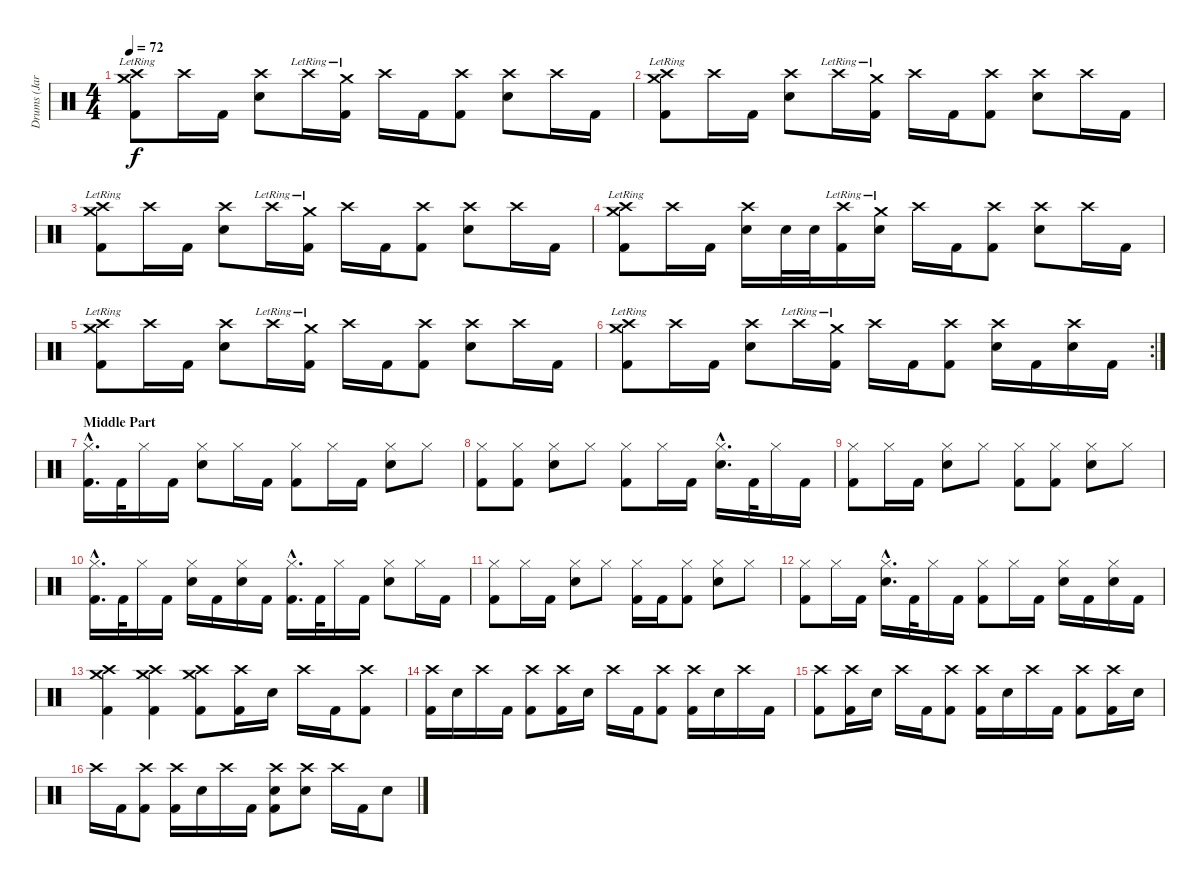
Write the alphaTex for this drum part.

\track ("Drums (Jarod Montague)" "Drums (Jar") {instrument percussion}
\staff {score}
\articulation defaults
\ts (4 4)
\tempo 72
\clef neutral
\ks c
("Crash high (hit)" "Crash medium (hit)"{lr} "Kick (hit) 2").8{dy f} "Crash high (hit)".16 "Kick (hit) 2".16 ("Crash high (hit)" "Snare (hit) 2").8 "Crash high (hit)"{lr}.16 ("Crash medium (hit)"{lr} "Kick (hit) 2").16 "Crash high (hit)".16 "Kick (hit) 2".16 ("Crash high (hit)" "Kick (hit) 2").8 ("Crash high (hit)" "Snare (hit) 2").8 "Crash high (hit)".16 "Kick (hit) 2".16 |
("Crash high (hit)" "Crash medium (hit)"{lr} "Kick (hit) 2").8 "Crash high (hit)".16 "Kick (hit) 2".16 ("Crash high (hit)" "Snare (hit) 2").8 "Crash high (hit)"{lr}.16 ("Crash medium (hit)"{lr} "Kick (hit) 2").16 "Crash high (hit)".16 "Kick (hit) 2".16 ("Crash high (hit)" "Kick (hit) 2").8 ("Crash high (hit)" "Snare (hit) 2").8 "Crash high (hit)".16 "Kick (hit) 2".16 |
("Crash high (hit)" "Crash medium (hit)"{lr} "Kick (hit) 2").8 "Crash high (hit)".16 "Kick (hit) 2".16 ("Crash high (hit)" "Snare (hit) 2").8 "Crash high (hit)"{lr}.16 ("Crash medium (hit)"{lr} "Kick (hit) 2").16 "Crash high (hit)".16 "Kick (hit) 2".16 ("Crash high (hit)" "Kick (hit) 2").8 ("Crash high (hit)" "Snare (hit) 2").8 "Crash high (hit)".16 "Kick (hit) 2".16 |
("Crash high (hit)" "Crash medium (hit)"{lr} "Kick (hit) 2").8 "Crash high (hit)".16 "Kick (hit) 2".16 ("Crash high (hit)" "Snare (hit) 2").16 "Snare (hit) 2".32 "Snare (hit) 2".32 ("Crash high (hit)"{lr} "Kick (hit) 2").16 ("Crash medium (hit)"{lr} "Snare (hit) 2").16 "Crash high (hit)".16 "Kick (hit) 2".16 ("Crash high (hit)" "Kick (hit) 2").8 ("Crash high (hit)" "Snare (hit) 2").8 "Crash high (hit)".16 "Kick (hit) 2".16 |
("Crash high (hit)" "Crash medium (hit)"{lr} "Kick (hit) 2").8 "Crash high (hit)".16 "Kick (hit) 2".16 ("Crash high (hit)" "Snare (hit) 2").8 "Crash high (hit)"{lr}.16 ("Crash medium (hit)"{lr} "Kick (hit) 2").16 "Crash high (hit)".16 "Kick (hit) 2".16 ("Crash high (hit)" "Kick (hit) 2").8 ("Crash high (hit)" "Snare (hit) 2").8 "Crash high (hit)".16 "Kick (hit) 2".16 |
\rc 2
("Crash high (hit)" "Crash medium (hit)"{lr} "Kick (hit) 2").8 "Crash high (hit)".16 "Kick (hit) 2".16 ("Crash high (hit)" "Snare (hit) 2").8 "Crash high (hit)"{lr}.16 ("Crash medium (hit)"{lr} "Kick (hit) 2").16 "Crash high (hit)".16 "Kick (hit) 2".16 ("Crash high (hit)" "Kick (hit) 2").8 ("Crash high (hit)" "Snare (hit) 2").16 "Kick (hit) 2".16 ("Crash high (hit)" "Snare (hit) 2").16 "Kick (hit) 2".16 |
\section ("" "Middle Part")
("Hi-Hat (closed)"{hac} "Kick (hit) 2"{hac}).16{d} "Kick (hit) 2".32 "Hi-Hat (closed)".16 "Kick (hit) 2".16 ("Hi-Hat (closed)" "Snare (hit) 2").8 "Hi-Hat (closed)".16 "Kick (hit) 2".16 ("Hi-Hat (closed)" "Kick (hit) 2").8 "Hi-Hat (closed)".16 "Kick (hit) 2".16 ("Hi-Hat (closed)" "Snare (hit) 2").8 "Hi-Hat (closed)".8 |
("Hi-Hat (closed)" "Kick (hit) 2").8 ("Hi-Hat (closed)" "Kick (hit) 2").8 ("Hi-Hat (closed)" "Snare (hit) 2").8 "Hi-Hat (closed)".8 ("Hi-Hat (closed)" "Kick (hit) 2").8 "Hi-Hat (closed)".16 "Kick (hit) 2".16 ("Hi-Hat (closed)"{hac} "Snare (hit) 2"{hac}).16{d} "Kick (hit) 2".32 "Hi-Hat (closed)".16 "Kick (hit) 2".16 |
("Hi-Hat (closed)" "Kick (hit) 2").8 "Hi-Hat (closed)".16 "Kick (hit) 2".16 ("Hi-Hat (closed)" "Snare (hit) 2").8 "Hi-Hat (closed)".8 ("Hi-Hat (closed)" "Kick (hit) 2").8 ("Hi-Hat (closed)" "Kick (hit) 2").8 ("Hi-Hat (closed)" "Snare (hit) 2").8 "Hi-Hat (closed)".8 |
("Hi-Hat (closed)"{hac} "Kick (hit) 2"{hac}).16{d} "Kick (hit) 2".32 "Hi-Hat (closed)".16 "Kick (hit) 2".16 ("Hi-Hat (closed)" "Snare (hit) 2").16 "Kick (hit) 2".16 ("Hi-Hat (closed)" "Snare (hit) 2").16 "Kick (hit) 2".16 ("Hi-Hat (closed)"{hac} "Kick (hit) 2"{hac}).16{d} "Kick (hit) 2".32 "Hi-Hat (closed)".16 "Kick (hit) 2".16 ("Hi-Hat (closed)" "Snare (hit) 2").8 "Hi-Hat (closed)".16 "Kick (hit) 2".16 |
("Hi-Hat (closed)" "Kick (hit) 2").8 "Hi-Hat (closed)".16 "Kick (hit) 2".16 ("Hi-Hat (closed)" "Snare (hit) 2").8 "Hi-Hat (closed)".8 ("Hi-Hat (closed)" "Kick (hit) 2").16 "Kick (hit) 2".16 ("Hi-Hat (closed)" "Kick (hit) 2").8 ("Hi-Hat (closed)" "Snare (hit) 2").8 "Hi-Hat (closed)".8 |
("Hi-Hat (closed)" "Kick (hit) 2").8 "Hi-Hat (closed)".16 "Kick (hit) 2".16 ("Hi-Hat (closed)"{hac} "Snare (hit) 2"{hac}).16{d} "Kick (hit) 2".32 "Hi-Hat (closed)".16 "Kick (hit) 2".16 ("Hi-Hat (closed)" "Kick (hit) 2").8 "Hi-Hat (closed)".16 "Kick (hit) 2".16 ("Hi-Hat (closed)" "Snare (hit) 2").16 "Kick (hit) 2".16 ("Hi-Hat (closed)" "Snare (hit) 2").16 "Kick (hit) 2".16 |
("Crash high (hit)" "Crash medium (hit)" "Kick (hit) 2").4 ("Crash high (hit)" "Crash medium (hit)" "Kick (hit) 2").4 ("Crash high (hit)" "Crash medium (hit)" "Kick (hit) 2").8 ("Crash high (hit)" "Kick (hit) 2").16 "Snare (hit) 2".16 "Crash high (hit)".16 "Kick (hit) 2".16 ("Crash high (hit)" "Kick (hit) 2").8 |
("Crash high (hit)" "Kick (hit) 2").16 "Snare (hit) 2".16 "Crash high (hit)".16 "Kick (hit) 2".16 ("Crash high (hit)" "Kick (hit) 2").8 ("Crash high (hit)" "Kick (hit) 2").16 "Snare (hit) 2".16 "Crash high (hit)".16 "Kick (hit) 2".16 ("Crash high (hit)" "Kick (hit) 2").8 ("Crash high (hit)" "Kick (hit) 2").16 "Snare (hit) 2".16 "Crash high (hit)".16 "Kick (hit) 2".16 |
("Crash high (hit)" "Kick (hit) 2").8 ("Crash high (hit)" "Kick (hit) 2").16 "Snare (hit) 2".16 "Crash high (hit)".16 "Kick (hit) 2".16 ("Crash high (hit)" "Kick (hit) 2").8 ("Crash high (hit)" "Kick (hit) 2").16 "Snare (hit) 2".16 "Crash high (hit)".16 "Kick (hit) 2".16 ("Crash high (hit)" "Kick (hit) 2").8 ("Crash high (hit)" "Kick (hit) 2").16 "Snare (hit) 2".16 |
"Crash high (hit)".16 "Kick (hit) 2".16 ("Crash high (hit)" "Kick (hit) 2").8 ("Crash high (hit)" "Kick (hit) 2").16 "Snare (hit) 2".16 "Crash high (hit)".16 "Kick (hit) 2".16 ("Crash high (hit)" "Snare (hit) 2" "Kick (hit) 2").8 ("Crash high (hit)" "Snare (hit) 2").8 "Crash high (hit)".16 "Kick (hit) 2".16 "Snare (hit) 2".8
